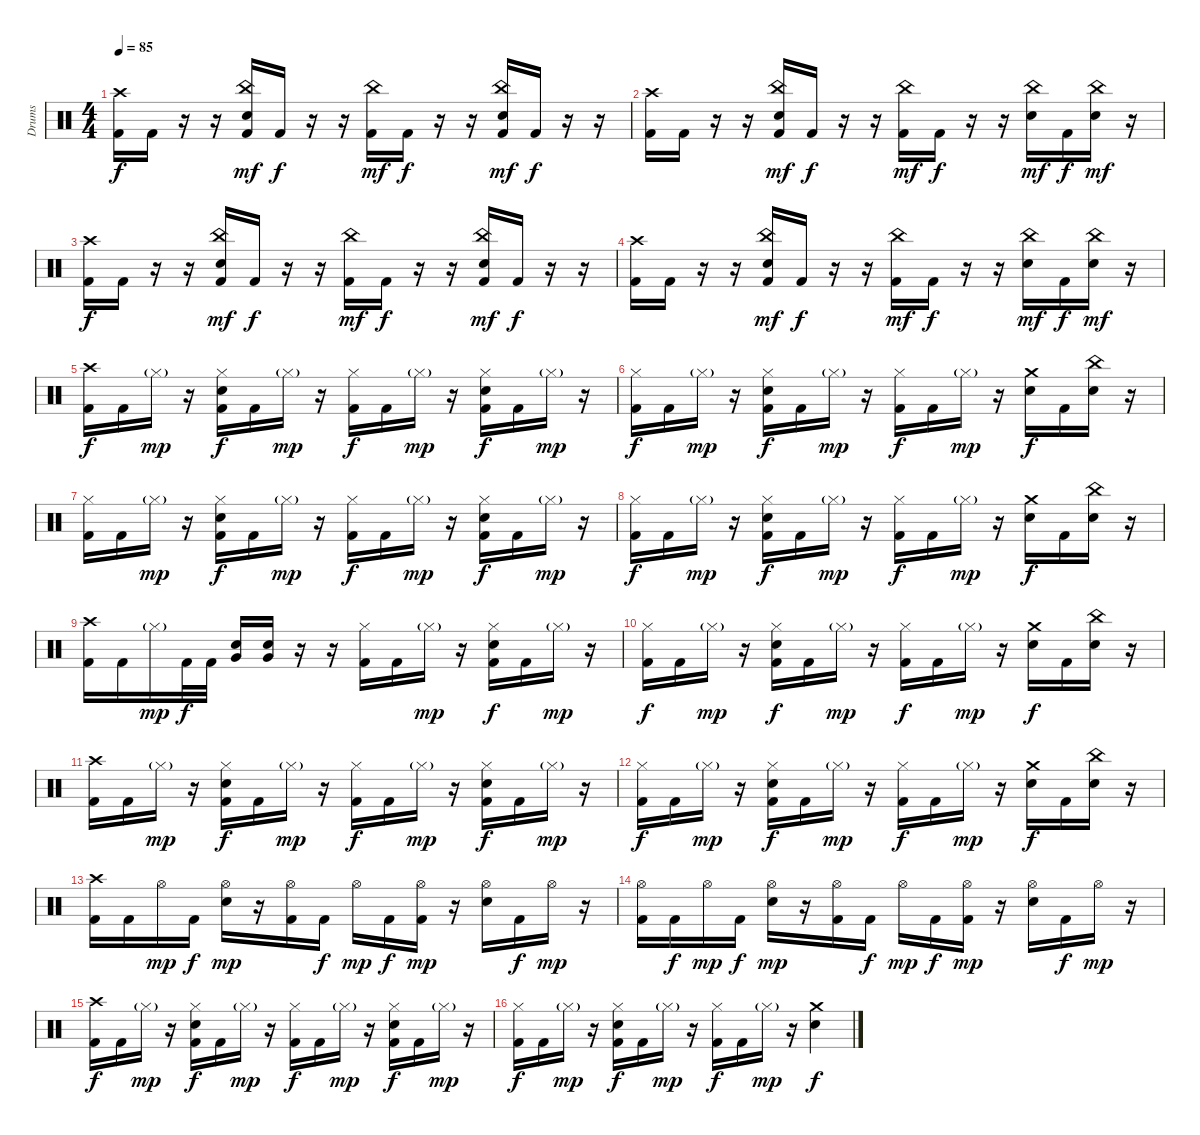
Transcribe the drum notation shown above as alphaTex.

\track ("Drums" "Drums") {instrument percussion}
\staff {score}
\articulation defaults
\ts (4 4)
\tempo 85
\clef neutral
\ks c
("Crash high (hit)" "Kick (hit) 2").16{dy f} "Kick (hit) 2".16 r.16 r.16 ("China (hit)" "Electric Snare (hit)" "Kick (hit) 2").16{dy mf} "Kick (hit) 2".16{dy f} r.16 r.16 ("China (hit)" "Kick (hit) 2").16{dy mf} "Kick (hit) 2".16{dy f} r.16 r.16 ("China (hit)" "Electric Snare (hit)" "Kick (hit) 2").16{dy mf} "Kick (hit) 2".16{dy f} r.16 r.16 |
("Crash high (hit)" "Kick (hit) 2").16 "Kick (hit) 2".16 r.16 r.16 ("China (hit)" "Electric Snare (hit)" "Kick (hit) 2").16{dy mf} "Kick (hit) 2".16{dy f} r.16 r.16 ("China (hit)" "Kick (hit) 2").16{dy mf} "Kick (hit) 2".16{dy f} r.16 r.16 ("China (hit)" "Electric Snare (hit)").16{dy mf} "Kick (hit) 2".16{dy f} ("China (hit)" "Electric Snare (hit)").16{dy mf} r.16 |
("Crash high (hit)" "Kick (hit) 2").16{dy f} "Kick (hit) 2".16 r.16 r.16 ("China (hit)" "Electric Snare (hit)" "Kick (hit) 2").16{dy mf} "Kick (hit) 2".16{dy f} r.16 r.16 ("China (hit)" "Kick (hit) 2").16{dy mf} "Kick (hit) 2".16{dy f} r.16 r.16 ("China (hit)" "Electric Snare (hit)" "Kick (hit) 2").16{dy mf} "Kick (hit) 2".16{dy f} r.16 r.16 |
("Crash high (hit)" "Kick (hit) 2").16 "Kick (hit) 2".16 r.16 r.16 ("China (hit)" "Electric Snare (hit)" "Kick (hit) 2").16{dy mf} "Kick (hit) 2".16{dy f} r.16 r.16 ("China (hit)" "Kick (hit) 2").16{dy mf} "Kick (hit) 2".16{dy f} r.16 r.16 ("China (hit)" "Electric Snare (hit)").16{dy mf} "Kick (hit) 2".16{dy f} ("China (hit)" "Electric Snare (hit)").16{dy mf} r.16 |
("Crash high (hit)" "Kick (hit) 2").16{dy f} "Kick (hit) 2".16 "Hi-Hat (closed)"{g}.16{dy mp} r.16 ("Hi-Hat (closed)" "Electric Snare (hit)" "Kick (hit) 2").16{dy f} "Kick (hit) 2".16 "Hi-Hat (closed)"{g}.16{dy mp} r.16 ("Hi-Hat (closed)" "Kick (hit) 2").16{dy f} "Kick (hit) 2".16 "Hi-Hat (closed)"{g}.16{dy mp} r.16 ("Hi-Hat (closed)" "Electric Snare (hit)" "Kick (hit) 2").16{dy f} "Kick (hit) 2".16 "Hi-Hat (closed)"{g}.16{dy mp} r.16 |
("Hi-Hat (closed)" "Kick (hit) 2").16{dy f} "Kick (hit) 2".16 "Hi-Hat (closed)"{g}.16{dy mp} r.16 ("Hi-Hat (closed)" "Electric Snare (hit)" "Kick (hit) 2").16{dy f} "Kick (hit) 2".16 "Hi-Hat (closed)"{g}.16{dy mp} r.16 ("Hi-Hat (closed)" "Kick (hit) 2").16{dy f} "Kick (hit) 2".16 "Hi-Hat (closed)"{g}.16{dy mp} r.16 ("Crash medium (hit)" "Electric Snare (hit)").16{dy f} "Kick (hit) 2".16 ("China (hit)" "Electric Snare (hit)").16 r.16 |
("Hi-Hat (closed)" "Kick (hit) 2").16 "Kick (hit) 2".16 "Hi-Hat (closed)"{g}.16{dy mp} r.16 ("Hi-Hat (closed)" "Electric Snare (hit)" "Kick (hit) 2").16{dy f} "Kick (hit) 2".16 "Hi-Hat (closed)"{g}.16{dy mp} r.16 ("Hi-Hat (closed)" "Kick (hit) 2").16{dy f} "Kick (hit) 2".16 "Hi-Hat (closed)"{g}.16{dy mp} r.16 ("Hi-Hat (closed)" "Electric Snare (hit)" "Kick (hit) 2").16{dy f} "Kick (hit) 2".16 "Hi-Hat (closed)"{g}.16{dy mp} r.16 |
("Hi-Hat (closed)" "Kick (hit) 2").16{dy f} "Kick (hit) 2".16 "Hi-Hat (closed)"{g}.16{dy mp} r.16 ("Hi-Hat (closed)" "Electric Snare (hit)" "Kick (hit) 2").16{dy f} "Kick (hit) 2".16 "Hi-Hat (closed)"{g}.16{dy mp} r.16 ("Hi-Hat (closed)" "Kick (hit) 2").16{dy f} "Kick (hit) 2".16 "Hi-Hat (closed)"{g}.16{dy mp} r.16 ("Crash medium (hit)" "Electric Snare (hit)").16{dy f} "Kick (hit) 2".16 ("China (hit)" "Electric Snare (hit)").16 r.16 |
("Crash high (hit)" "Kick (hit) 2").16 "Kick (hit) 2".16 "Hi-Hat (closed)"{g}.16{dy mp} "Kick (hit) 2".32{dy f} "Kick (hit) 2".32 ("Electric Snare (hit)" "Very Low Tom (hit)").16 ("Electric Snare (hit)" "Very Low Tom (hit)").16 r.16 r.16 ("Hi-Hat (closed)" "Kick (hit) 2").16 "Kick (hit) 2".16 "Hi-Hat (closed)"{g}.16{dy mp} r.16 ("Hi-Hat (closed)" "Electric Snare (hit)" "Kick (hit) 2").16{dy f} "Kick (hit) 2".16 "Hi-Hat (closed)"{g}.16{dy mp} r.16 |
("Hi-Hat (closed)" "Kick (hit) 2").16{dy f} "Kick (hit) 2".16 "Hi-Hat (closed)"{g}.16{dy mp} r.16 ("Hi-Hat (closed)" "Electric Snare (hit)" "Kick (hit) 2").16{dy f} "Kick (hit) 2".16 "Hi-Hat (closed)"{g}.16{dy mp} r.16 ("Hi-Hat (closed)" "Kick (hit) 2").16{dy f} "Kick (hit) 2".16 "Hi-Hat (closed)"{g}.16{dy mp} r.16 ("Crash medium (hit)" "Electric Snare (hit)").16{dy f} "Kick (hit) 2".16 ("China (hit)" "Electric Snare (hit)").16 r.16 |
("Crash high (hit)" "Kick (hit) 2").16 "Kick (hit) 2".16 "Hi-Hat (closed)"{g}.16{dy mp} r.16 ("Hi-Hat (closed)" "Electric Snare (hit)" "Kick (hit) 2").16{dy f} "Kick (hit) 2".16 "Hi-Hat (closed)"{g}.16{dy mp} r.16 ("Hi-Hat (closed)" "Kick (hit) 2").16{dy f} "Kick (hit) 2".16 "Hi-Hat (closed)"{g}.16{dy mp} r.16 ("Hi-Hat (closed)" "Electric Snare (hit)" "Kick (hit) 2").16{dy f} "Kick (hit) 2".16 "Hi-Hat (closed)"{g}.16{dy mp} r.16 |
("Hi-Hat (closed)" "Kick (hit) 2").16{dy f} "Kick (hit) 2".16 "Hi-Hat (closed)"{g}.16{dy mp} r.16 ("Hi-Hat (closed)" "Electric Snare (hit)" "Kick (hit) 2").16{dy f} "Kick (hit) 2".16 "Hi-Hat (closed)"{g}.16{dy mp} r.16 ("Hi-Hat (closed)" "Kick (hit) 2").16{dy f} "Kick (hit) 2".16 "Hi-Hat (closed)"{g}.16{dy mp} r.16 ("Crash medium (hit)" "Electric Snare (hit)").16{dy f} "Kick (hit) 2".16 ("China (hit)" "Electric Snare (hit)").16 r.16 |
("Crash high (hit)" "Kick (hit) 2").16 "Kick (hit) 2".16 "Hi-Hat (open)".16{dy mp} "Kick (hit) 2".16{dy f} ("Hi-Hat (open)" "Electric Snare (hit)").16{dy mp} r.16 ("Hi-Hat (open)" "Kick (hit) 2").16 "Kick (hit) 2".16{dy f} "Hi-Hat (open)".16{dy mp} "Kick (hit) 2".16{dy f} ("Hi-Hat (open)" "Kick (hit) 2").16{dy mp} r.16 ("Hi-Hat (open)" "Electric Snare (hit)").16 "Kick (hit) 2".16{dy f} "Hi-Hat (open)".16{dy mp} r.16 |
("Hi-Hat (open)" "Kick (hit) 2").16 "Kick (hit) 2".16{dy f} "Hi-Hat (open)".16{dy mp} "Kick (hit) 2".16{dy f} ("Hi-Hat (open)" "Electric Snare (hit)").16{dy mp} r.16 ("Hi-Hat (open)" "Kick (hit) 2").16 "Kick (hit) 2".16{dy f} "Hi-Hat (open)".16{dy mp} "Kick (hit) 2".16{dy f} ("Hi-Hat (open)" "Kick (hit) 2").16{dy mp} r.16 ("Hi-Hat (open)" "Electric Snare (hit)").16 "Kick (hit) 2".16{dy f} "Hi-Hat (open)".16{dy mp} r.16 |
("Crash high (hit)" "Kick (hit) 2").16{dy f} "Kick (hit) 2".16 "Hi-Hat (closed)"{g}.16{dy mp} r.16 ("Hi-Hat (closed)" "Electric Snare (hit)" "Kick (hit) 2").16{dy f} "Kick (hit) 2".16 "Hi-Hat (closed)"{g}.16{dy mp} r.16 ("Hi-Hat (closed)" "Kick (hit) 2").16{dy f} "Kick (hit) 2".16 "Hi-Hat (closed)"{g}.16{dy mp} r.16 ("Hi-Hat (closed)" "Electric Snare (hit)" "Kick (hit) 2").16{dy f} "Kick (hit) 2".16 "Hi-Hat (closed)"{g}.16{dy mp} r.16 |
("Hi-Hat (closed)" "Kick (hit) 2").16{dy f} "Kick (hit) 2".16 "Hi-Hat (closed)"{g}.16{dy mp} r.16 ("Hi-Hat (closed)" "Electric Snare (hit)" "Kick (hit) 2").16{dy f} "Kick (hit) 2".16 "Hi-Hat (closed)"{g}.16{dy mp} r.16 ("Hi-Hat (closed)" "Kick (hit) 2").16{dy f} "Kick (hit) 2".16 "Hi-Hat (closed)"{g}.16{dy mp} r.16 ("Crash medium (hit)" "Electric Snare (hit)").4{dy f}
